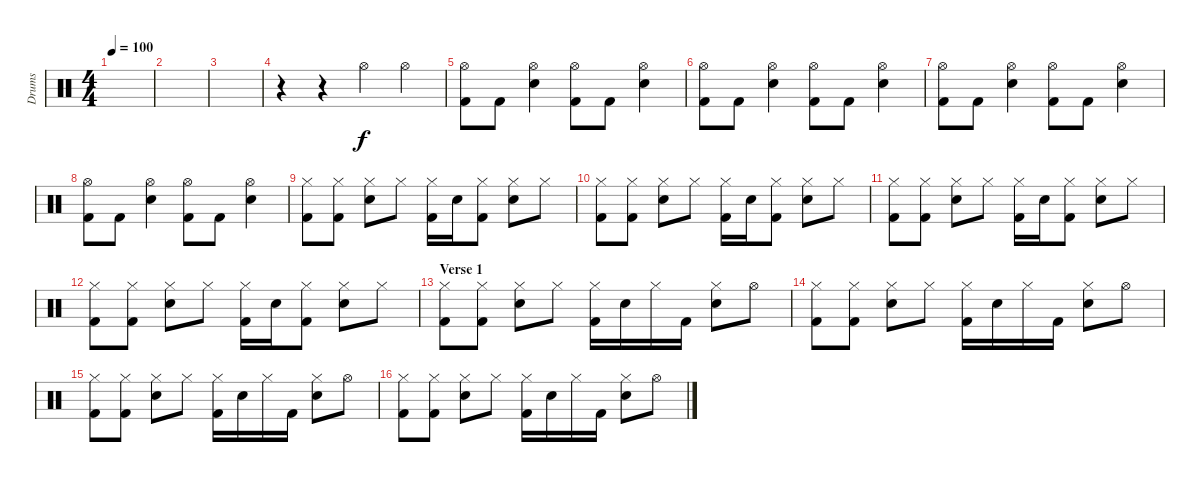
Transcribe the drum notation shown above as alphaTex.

\track ("Drums" "Drums") {instrument percussion}
\staff {score}
\articulation defaults
\ts (4 4)
\tempo 100
\clef neutral
\ks c
|
|
|
r.4 r.4 "Hi-Hat (open)".4 "Hi-Hat (open)".4 |
("Hi-Hat (open)" "Kick (hit) 2").8 "Kick (hit) 2".8 ("Hi-Hat (open)" "Snare (hit) 2").4 ("Hi-Hat (open)" "Kick (hit) 2").8 "Kick (hit) 2".8 ("Hi-Hat (open)" "Snare (hit) 2").4 |
("Hi-Hat (open)" "Kick (hit) 2").8 "Kick (hit) 2".8 ("Hi-Hat (open)" "Snare (hit) 2").4 ("Hi-Hat (open)" "Kick (hit) 2").8 "Kick (hit) 2".8 ("Hi-Hat (open)" "Snare (hit) 2").4 |
("Hi-Hat (open)" "Kick (hit) 2").8 "Kick (hit) 2".8 ("Hi-Hat (open)" "Snare (hit) 2").4 ("Hi-Hat (open)" "Kick (hit) 2").8 "Kick (hit) 2".8 ("Hi-Hat (open)" "Snare (hit) 2").4 |
("Hi-Hat (open)" "Kick (hit) 2").8 "Kick (hit) 2".8 ("Hi-Hat (open)" "Snare (hit) 2").4 ("Hi-Hat (open)" "Kick (hit) 2").8 "Kick (hit) 2".8 ("Hi-Hat (open)" "Snare (hit) 2").4 |
("Hi-Hat (closed)" "Kick (hit) 2").8 ("Hi-Hat (closed)" "Kick (hit) 2").8 ("Hi-Hat (closed)" "Snare (hit) 2").8 "Hi-Hat (closed)".8 ("Hi-Hat (closed)" "Kick (hit) 2").16 "Snare (hit) 2".16 ("Hi-Hat (closed)" "Kick (hit) 2").8 ("Hi-Hat (closed)" "Snare (hit) 2").8 "Hi-Hat (closed)".8 |
("Hi-Hat (closed)" "Kick (hit) 2").8 ("Hi-Hat (closed)" "Kick (hit) 2").8 ("Hi-Hat (closed)" "Snare (hit) 2").8 "Hi-Hat (closed)".8 ("Hi-Hat (closed)" "Kick (hit) 2").16 "Snare (hit) 2".16 ("Hi-Hat (closed)" "Kick (hit) 2").8 ("Hi-Hat (closed)" "Snare (hit) 2").8 "Hi-Hat (closed)".8 |
("Hi-Hat (closed)" "Kick (hit) 2").8 ("Hi-Hat (closed)" "Kick (hit) 2").8 ("Hi-Hat (closed)" "Snare (hit) 2").8 "Hi-Hat (closed)".8 ("Hi-Hat (closed)" "Kick (hit) 2").16 "Snare (hit) 2".16 ("Hi-Hat (closed)" "Kick (hit) 2").8 ("Hi-Hat (closed)" "Snare (hit) 2").8 "Hi-Hat (closed)".8 |
("Hi-Hat (closed)" "Kick (hit) 2").8 ("Hi-Hat (closed)" "Kick (hit) 2").8 ("Hi-Hat (closed)" "Snare (hit) 2").8 "Hi-Hat (closed)".8 ("Hi-Hat (closed)" "Kick (hit) 2").16 "Snare (hit) 2".16 ("Hi-Hat (closed)" "Kick (hit) 2").8 ("Hi-Hat (closed)" "Snare (hit) 2").8 "Hi-Hat (closed)".8 |
\section ("" "Verse 1")
("Hi-Hat (closed)" "Kick (hit) 2").8 ("Hi-Hat (closed)" "Kick (hit) 2").8 ("Hi-Hat (closed)" "Snare (hit) 2").8 "Hi-Hat (closed)".8 ("Hi-Hat (closed)" "Kick (hit) 2").16 "Snare (hit) 2".16 "Hi-Hat (closed)".16 "Kick (hit) 2".16 ("Hi-Hat (closed)" "Snare (hit) 2").8 "Hi-Hat (open)".8 |
("Hi-Hat (closed)" "Kick (hit) 2").8 ("Hi-Hat (closed)" "Kick (hit) 2").8 ("Hi-Hat (closed)" "Snare (hit) 2").8 "Hi-Hat (closed)".8 ("Hi-Hat (closed)" "Kick (hit) 2").16 "Snare (hit) 2".16 "Hi-Hat (closed)".16 "Kick (hit) 2".16 ("Hi-Hat (closed)" "Snare (hit) 2").8 "Hi-Hat (open)".8 |
("Hi-Hat (closed)" "Kick (hit) 2").8 ("Hi-Hat (closed)" "Kick (hit) 2").8 ("Hi-Hat (closed)" "Snare (hit) 2").8 "Hi-Hat (closed)".8 ("Hi-Hat (closed)" "Kick (hit) 2").16 "Snare (hit) 2".16 "Hi-Hat (closed)".16 "Kick (hit) 2".16 ("Hi-Hat (closed)" "Snare (hit) 2").8 "Hi-Hat (open)".8 |
("Hi-Hat (closed)" "Kick (hit) 2").8 ("Hi-Hat (closed)" "Kick (hit) 2").8 ("Hi-Hat (closed)" "Snare (hit) 2").8 "Hi-Hat (closed)".8 ("Hi-Hat (closed)" "Kick (hit) 2").16 "Snare (hit) 2".16 "Hi-Hat (closed)".16 "Kick (hit) 2".16 ("Hi-Hat (closed)" "Snare (hit) 2").8 "Hi-Hat (open)".8
